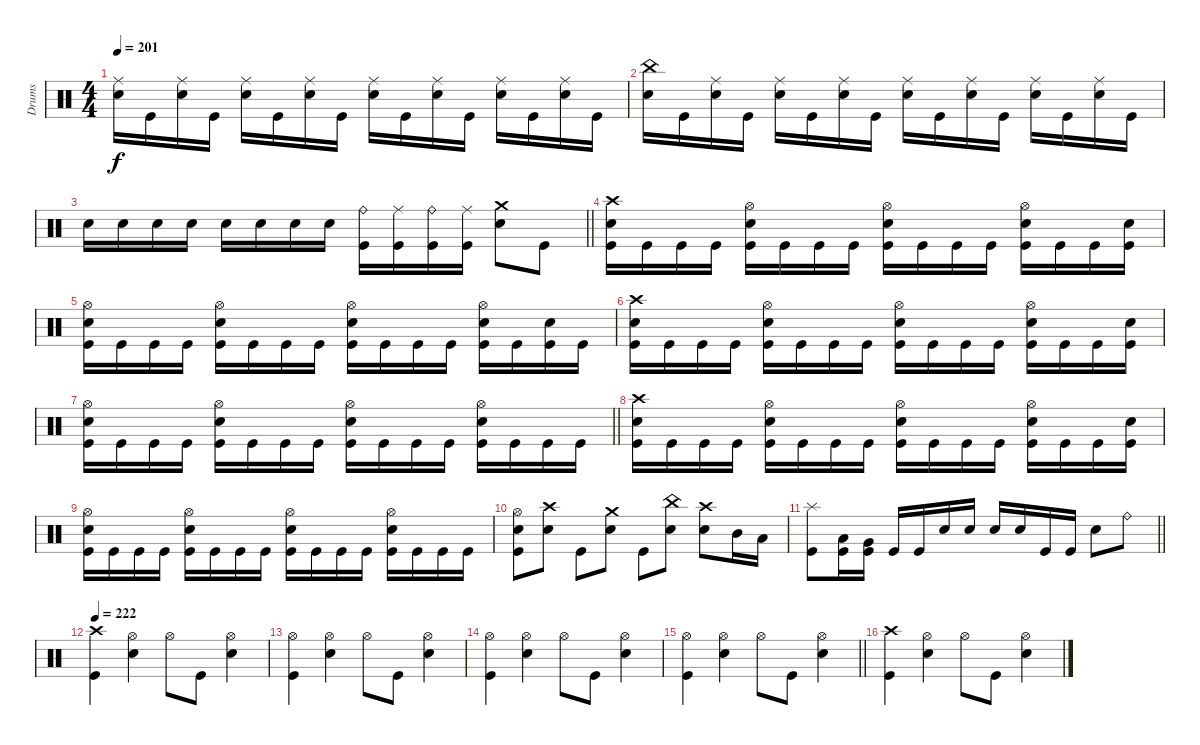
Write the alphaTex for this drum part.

\track ("Drums" "Drums") {instrument percussion}
\staff
\articulation defaults
\ts (4 4)
\tempo 201
\clef neutral
\ks c
("Ride (middle)" "Electric Snare (hit)").16{dy f} "Kick (hit)".16 ("Ride (middle)" "Electric Snare (hit)").16 "Kick (hit)".16 ("Ride (middle)" "Electric Snare (hit)").16 "Kick (hit)".16 ("Ride (middle)" "Electric Snare (hit)").16 "Kick (hit)".16 ("Ride (middle)" "Electric Snare (hit)").16 "Kick (hit)".16 ("Ride (middle)" "Electric Snare (hit)").16 "Kick (hit)".16 ("Ride (middle)" "Electric Snare (hit)").16 "Kick (hit)".16 ("Ride (middle)" "Electric Snare (hit)").16 "Kick (hit)".16 |
("China (hit)" "Electric Snare (hit)").16 "Kick (hit)".16 ("Ride (middle)" "Electric Snare (hit)").16 "Kick (hit)".16 ("Ride (middle)" "Electric Snare (hit)").16 "Kick (hit)".16 ("Ride (middle)" "Electric Snare (hit)").16 "Kick (hit)".16 ("Ride (middle)" "Electric Snare (hit)").16 "Kick (hit)".16 ("Ride (middle)" "Electric Snare (hit)").16 "Kick (hit)".16 ("Ride (middle)" "Electric Snare (hit)").16 "Kick (hit)".16 ("Ride (middle)" "Electric Snare (hit)").16 "Kick (hit)".16 |
\barLineRight lightlight "Electric Snare (hit)".16 "Electric Snare (hit)".16 "Electric Snare (hit)".16 "Electric Snare (hit)".16 "Electric Snare (hit)".16 "Electric Snare (hit)".16 "Electric Snare (hit)".16 "Electric Snare (hit)".16
("Ride (bell)" "Kick (hit)").16 ("Ride (middle)" "Kick (hit)").16 ("Ride (bell)" "Kick (hit)").16 ("Ride (middle)" "Kick (hit)").16 ("Crash medium (hit)" "Electric Snare (hit)").8 "Kick (hit)".8 |
("Crash high (hit)" "Electric Snare (hit)" "Kick (hit)").16 "Kick (hit)".16 "Kick (hit)".16 "Kick (hit)".16 ("Hi-Hat (open)" "Electric Snare (hit)" "Kick (hit)").16 "Kick (hit)".16 "Kick (hit)".16 "Kick (hit)".16 ("Hi-Hat (open)" "Electric Snare (hit)" "Kick (hit)").16 "Kick (hit)".16 "Kick (hit)".16 "Kick (hit)".16 ("Hi-Hat (open)" "Electric Snare (hit)" "Kick (hit)").16 "Kick (hit)".16 "Kick (hit)".16 ("Electric Snare (hit)" "Kick (hit)").16 |
("Hi-Hat (open)" "Electric Snare (hit)" "Kick (hit)").16 "Kick (hit)".16 "Kick (hit)".16 "Kick (hit)".16 ("Hi-Hat (open)" "Electric Snare (hit)" "Kick (hit)").16 "Kick (hit)".16 "Kick (hit)".16 "Kick (hit)".16 ("Hi-Hat (open)" "Electric Snare (hit)" "Kick (hit)").16 "Kick (hit)".16 "Kick (hit)".16 "Kick (hit)".16 ("Hi-Hat (open)" "Electric Snare (hit)" "Kick (hit)").16 "Kick (hit)".16 ("Electric Snare (hit)" "Kick (hit)").16 "Kick (hit)".16 |
("Crash high (hit)" "Electric Snare (hit)" "Kick (hit)").16 "Kick (hit)".16 "Kick (hit)".16 "Kick (hit)".16 ("Hi-Hat (open)" "Electric Snare (hit)" "Kick (hit)").16 "Kick (hit)".16 "Kick (hit)".16 "Kick (hit)".16 ("Hi-Hat (open)" "Electric Snare (hit)" "Kick (hit)").16 "Kick (hit)".16 "Kick (hit)".16 "Kick (hit)".16 ("Hi-Hat (open)" "Electric Snare (hit)" "Kick (hit)").16 "Kick (hit)".16 "Kick (hit)".16 ("Electric Snare (hit)" "Kick (hit)").16 |
\barLineRight lightlight
("Hi-Hat (open)" "Electric Snare (hit)" "Kick (hit)").16 "Kick (hit)".16 "Kick (hit)".16 "Kick (hit)".16 ("Hi-Hat (open)" "Electric Snare (hit)" "Kick (hit)").16 "Kick (hit)".16 "Kick (hit)".16 "Kick (hit)".16 ("Hi-Hat (open)" "Electric Snare (hit)" "Kick (hit)").16 "Kick (hit)".16 "Kick (hit)".16 "Kick (hit)".16 ("Hi-Hat (open)" "Electric Snare (hit)" "Kick (hit)").16 "Kick (hit)".16 "Kick (hit)".16 "Kick (hit)".16 |
("Crash high (hit)" "Electric Snare (hit)" "Kick (hit)").16 "Kick (hit)".16 "Kick (hit)".16 "Kick (hit)".16 ("Hi-Hat (open)" "Electric Snare (hit)" "Kick (hit)").16 "Kick (hit)".16 "Kick (hit)".16 "Kick (hit)".16 ("Hi-Hat (open)" "Electric Snare (hit)" "Kick (hit)").16 "Kick (hit)".16 "Kick (hit)".16 "Kick (hit)".16 ("Hi-Hat (open)" "Electric Snare (hit)" "Kick (hit)").16 "Kick (hit)".16 "Kick (hit)".16 ("Electric Snare (hit)" "Kick (hit)").16 |
("Hi-Hat (open)" "Electric Snare (hit)" "Kick (hit)").16 "Kick (hit)".16 "Kick (hit)".16 "Kick (hit)".16 ("Hi-Hat (open)" "Electric Snare (hit)" "Kick (hit)").16 "Kick (hit)".16 "Kick (hit)".16 "Kick (hit)".16 ("Hi-Hat (open)" "Electric Snare (hit)" "Kick (hit)").16 "Kick (hit)".16 "Kick (hit)".16 "Kick (hit)".16 ("Hi-Hat (open)" "Electric Snare (hit)" "Kick (hit)").16 "Kick (hit)".16 "Kick (hit)".16 "Kick (hit)".16 |
("Hi-Hat (open)" "Electric Snare (hit)" "Kick (hit)").8 ("Crash high (hit)" "Electric Snare (hit)").8 "Kick (hit)".8 ("Crash medium (hit)" "Electric Snare (hit)").8 "Kick (hit)".8 ("China (hit)" "Electric Snare (hit)").8 ("Crash high (hit)" "Electric Snare (hit)").8 "Mid Tom (hit)".16 "Low Tom (hit)".16 |
\barLineRight lightlight
("Splash (hit)" "Kick (hit)").8 ("Low Tom (hit)" "Kick (hit)").16 ("Very Low Tom (hit)" "Kick (hit)").16 "Kick (hit)".16 "Kick (hit)".16 "Electric Snare (hit)".16 "Electric Snare (hit)".16 "Electric Snare (hit)".16 "Electric Snare (hit)".16 "Kick (hit)".16 "Kick (hit)".16 "Electric Snare (hit)".8 "Ride (bell)".8 |
\section ("" "")
\tempo 222
("Crash high (hit)" "Kick (hit)").4 ("Hi-Hat (open)" "Electric Snare (hit)").4 "Hi-Hat (open)".8 "Kick (hit)".8 ("Hi-Hat (open)" "Electric Snare (hit)").4 |
("Hi-Hat (open)" "Kick (hit)").4 ("Hi-Hat (open)" "Electric Snare (hit)").4 "Hi-Hat (open)".8 "Kick (hit)".8 ("Hi-Hat (open)" "Electric Snare (hit)").4 |
("Hi-Hat (open)" "Kick (hit)").4 ("Hi-Hat (open)" "Electric Snare (hit)").4 "Hi-Hat (open)".8 "Kick (hit)".8 ("Hi-Hat (open)" "Electric Snare (hit)").4 |
\barLineRight lightlight
("Hi-Hat (open)" "Kick (hit)").4 ("Hi-Hat (open)" "Electric Snare (hit)").4 "Hi-Hat (open)".8 "Kick (hit)".8 ("Hi-Hat (open)" "Electric Snare (hit)").4 |
("Crash high (hit)" "Kick (hit)").4 ("Hi-Hat (open)" "Electric Snare (hit)").4 "Hi-Hat (open)".8 "Kick (hit)".8 ("Hi-Hat (open)" "Electric Snare (hit)").4
